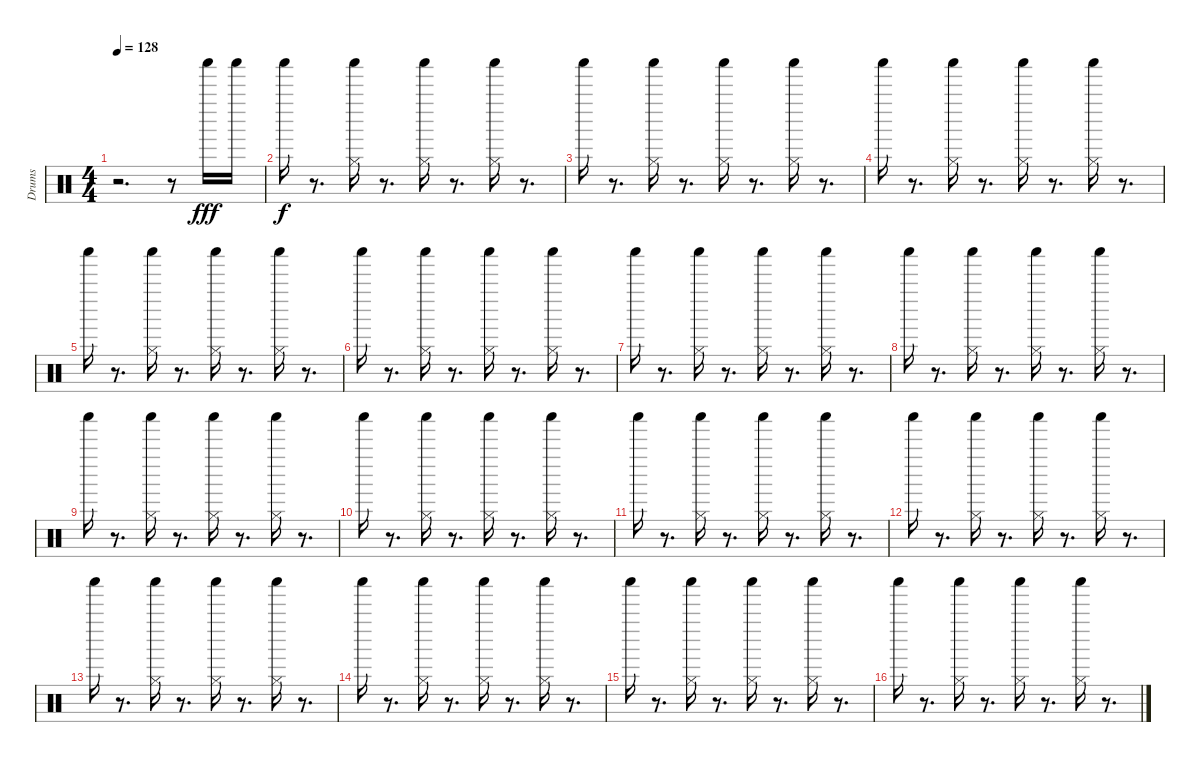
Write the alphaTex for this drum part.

\track ("Drums  " "Drums  ") {instrument percussion}
\staff {score}
\articulation defaults
\ts (4 4)
\tempo 128
\clef neutral
\ks c
r.2{d dy f} r.8 "Shaker (hit)".16{dy fff} "Shaker (hit)".16 |
"Shaker (hit)".16{dy f} r.8{d} ("Shaker (hit)" "Hi-Hat (closed)").16 r.8{d} ("Shaker (hit)" "Hi-Hat (closed)").16 r.8{d} ("Shaker (hit)" "Hi-Hat (closed)").16 r.8{d} |
"Shaker (hit)".16 r.8{d} ("Shaker (hit)" "Hi-Hat (closed)").16 r.8{d} ("Shaker (hit)" "Hi-Hat (closed)").16 r.8{d} ("Shaker (hit)" "Hi-Hat (closed)").16 r.8{d} |
"Shaker (hit)".16 r.8{d} ("Shaker (hit)" "Hi-Hat (closed)").16 r.8{d} ("Shaker (hit)" "Hi-Hat (closed)").16 r.8{d} ("Shaker (hit)" "Hi-Hat (closed)").16 r.8{d} |
"Shaker (hit)".16 r.8{d} ("Shaker (hit)" "Hi-Hat (closed)").16 r.8{d} ("Shaker (hit)" "Hi-Hat (closed)").16 r.8{d} ("Shaker (hit)" "Hi-Hat (closed)").16 r.8{d} |
"Shaker (hit)".16 r.8{d} ("Shaker (hit)" "Hi-Hat (closed)").16 r.8{d} ("Shaker (hit)" "Hi-Hat (closed)").16 r.8{d} ("Shaker (hit)" "Hi-Hat (closed)").16 r.8{d} |
"Shaker (hit)".16 r.8{d} ("Shaker (hit)" "Hi-Hat (closed)").16 r.8{d} ("Shaker (hit)" "Hi-Hat (closed)").16 r.8{d} ("Shaker (hit)" "Hi-Hat (closed)").16 r.8{d} |
"Shaker (hit)".16 r.8{d} ("Shaker (hit)" "Hi-Hat (closed)").16 r.8{d} ("Shaker (hit)" "Hi-Hat (closed)").16 r.8{d} ("Shaker (hit)" "Hi-Hat (closed)").16 r.8{d} |
"Shaker (hit)".16 r.8{d} ("Shaker (hit)" "Hi-Hat (closed)").16 r.8{d} ("Shaker (hit)" "Hi-Hat (closed)").16 r.8{d} ("Shaker (hit)" "Hi-Hat (closed)").16 r.8{d} |
"Shaker (hit)".16 r.8{d} ("Shaker (hit)" "Hi-Hat (closed)").16 r.8{d} ("Shaker (hit)" "Hi-Hat (closed)").16 r.8{d} ("Shaker (hit)" "Hi-Hat (closed)").16 r.8{d} |
"Shaker (hit)".16 r.8{d} ("Shaker (hit)" "Hi-Hat (closed)").16 r.8{d} ("Shaker (hit)" "Hi-Hat (closed)").16 r.8{d} ("Shaker (hit)" "Hi-Hat (closed)").16 r.8{d} |
"Shaker (hit)".16 r.8{d} ("Shaker (hit)" "Hi-Hat (closed)").16 r.8{d} ("Shaker (hit)" "Hi-Hat (closed)").16 r.8{d} ("Shaker (hit)" "Hi-Hat (closed)").16 r.8{d} |
"Shaker (hit)".16 r.8{d} ("Shaker (hit)" "Hi-Hat (closed)").16 r.8{d} ("Shaker (hit)" "Hi-Hat (closed)").16 r.8{d} ("Shaker (hit)" "Hi-Hat (closed)").16 r.8{d} |
"Shaker (hit)".16 r.8{d} ("Shaker (hit)" "Hi-Hat (closed)").16 r.8{d} ("Shaker (hit)" "Hi-Hat (closed)").16 r.8{d} ("Shaker (hit)" "Hi-Hat (closed)").16 r.8{d} |
"Shaker (hit)".16 r.8{d} ("Shaker (hit)" "Hi-Hat (closed)").16 r.8{d} ("Shaker (hit)" "Hi-Hat (closed)").16 r.8{d} ("Shaker (hit)" "Hi-Hat (closed)").16 r.8{d} |
"Shaker (hit)".16 r.8{d} ("Shaker (hit)" "Hi-Hat (closed)").16 r.8{d} ("Shaker (hit)" "Hi-Hat (closed)").16 r.8{d} ("Shaker (hit)" "Hi-Hat (closed)").16 r.8{d}
